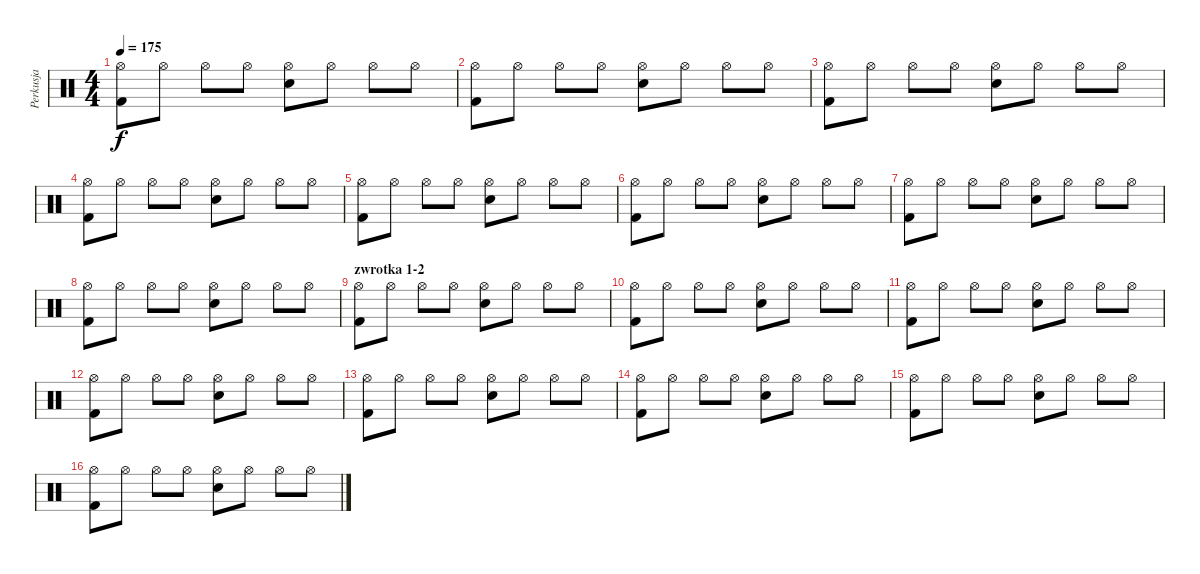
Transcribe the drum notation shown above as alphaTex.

\track ("Perkusja" "Perkusja") {instrument percussion}
\staff {score}
\articulation defaults
\ts (4 4)
\tempo 175
\clef neutral
\ks c
("Kick (hit) 2" "Hi-Hat (open)").8{dy f} "Hi-Hat (open)".8 "Hi-Hat (open)".8 "Hi-Hat (open)".8 ("Snare (hit) 2" "Hi-Hat (open)").8 "Hi-Hat (open)".8 "Hi-Hat (open)".8 "Hi-Hat (open)".8 |
("Kick (hit) 2" "Hi-Hat (open)").8 "Hi-Hat (open)".8 "Hi-Hat (open)".8 "Hi-Hat (open)".8 ("Snare (hit) 2" "Hi-Hat (open)").8 "Hi-Hat (open)".8 "Hi-Hat (open)".8 "Hi-Hat (open)".8 |
("Kick (hit) 2" "Hi-Hat (open)").8 "Hi-Hat (open)".8 "Hi-Hat (open)".8 "Hi-Hat (open)".8 ("Snare (hit) 2" "Hi-Hat (open)").8 "Hi-Hat (open)".8 "Hi-Hat (open)".8 "Hi-Hat (open)".8 |
("Kick (hit) 2" "Hi-Hat (open)").8 "Hi-Hat (open)".8 "Hi-Hat (open)".8 "Hi-Hat (open)".8 ("Snare (hit) 2" "Hi-Hat (open)").8 "Hi-Hat (open)".8 "Hi-Hat (open)".8 "Hi-Hat (open)".8 |
("Kick (hit) 2" "Hi-Hat (open)").8 "Hi-Hat (open)".8 "Hi-Hat (open)".8 "Hi-Hat (open)".8 ("Snare (hit) 2" "Hi-Hat (open)").8 "Hi-Hat (open)".8 "Hi-Hat (open)".8 "Hi-Hat (open)".8 |
("Kick (hit) 2" "Hi-Hat (open)").8 "Hi-Hat (open)".8 "Hi-Hat (open)".8 "Hi-Hat (open)".8 ("Snare (hit) 2" "Hi-Hat (open)").8 "Hi-Hat (open)".8 "Hi-Hat (open)".8 "Hi-Hat (open)".8 |
("Kick (hit) 2" "Hi-Hat (open)").8 "Hi-Hat (open)".8 "Hi-Hat (open)".8 "Hi-Hat (open)".8 ("Snare (hit) 2" "Hi-Hat (open)").8 "Hi-Hat (open)".8 "Hi-Hat (open)".8 "Hi-Hat (open)".8 |
("Kick (hit) 2" "Hi-Hat (open)").8 "Hi-Hat (open)".8 "Hi-Hat (open)".8 "Hi-Hat (open)".8 ("Snare (hit) 2" "Hi-Hat (open)").8 "Hi-Hat (open)".8 "Hi-Hat (open)".8 "Hi-Hat (open)".8 |
\section ("" "zwrotka 1-2")
("Kick (hit) 2" "Hi-Hat (open)").8 "Hi-Hat (open)".8 "Hi-Hat (open)".8 "Hi-Hat (open)".8 ("Snare (hit) 2" "Hi-Hat (open)").8 "Hi-Hat (open)".8 "Hi-Hat (open)".8 "Hi-Hat (open)".8 |
("Kick (hit) 2" "Hi-Hat (open)").8 "Hi-Hat (open)".8 "Hi-Hat (open)".8 "Hi-Hat (open)".8 ("Snare (hit) 2" "Hi-Hat (open)").8 "Hi-Hat (open)".8 "Hi-Hat (open)".8 "Hi-Hat (open)".8 |
("Kick (hit) 2" "Hi-Hat (open)").8 "Hi-Hat (open)".8 "Hi-Hat (open)".8 "Hi-Hat (open)".8 ("Snare (hit) 2" "Hi-Hat (open)").8 "Hi-Hat (open)".8 "Hi-Hat (open)".8 "Hi-Hat (open)".8 |
("Kick (hit) 2" "Hi-Hat (open)").8 "Hi-Hat (open)".8 "Hi-Hat (open)".8 "Hi-Hat (open)".8 ("Snare (hit) 2" "Hi-Hat (open)").8 "Hi-Hat (open)".8 "Hi-Hat (open)".8 "Hi-Hat (open)".8 |
("Kick (hit) 2" "Hi-Hat (open)").8 "Hi-Hat (open)".8 "Hi-Hat (open)".8 "Hi-Hat (open)".8 ("Snare (hit) 2" "Hi-Hat (open)").8 "Hi-Hat (open)".8 "Hi-Hat (open)".8 "Hi-Hat (open)".8 |
("Kick (hit) 2" "Hi-Hat (open)").8 "Hi-Hat (open)".8 "Hi-Hat (open)".8 "Hi-Hat (open)".8 ("Snare (hit) 2" "Hi-Hat (open)").8 "Hi-Hat (open)".8 "Hi-Hat (open)".8 "Hi-Hat (open)".8 |
("Kick (hit) 2" "Hi-Hat (open)").8 "Hi-Hat (open)".8 "Hi-Hat (open)".8 "Hi-Hat (open)".8 ("Snare (hit) 2" "Hi-Hat (open)").8 "Hi-Hat (open)".8 "Hi-Hat (open)".8 "Hi-Hat (open)".8 |
("Kick (hit) 2" "Hi-Hat (open)").8 "Hi-Hat (open)".8 "Hi-Hat (open)".8 "Hi-Hat (open)".8 ("Snare (hit) 2" "Hi-Hat (open)").8 "Hi-Hat (open)".8 "Hi-Hat (open)".8 "Hi-Hat (open)".8
